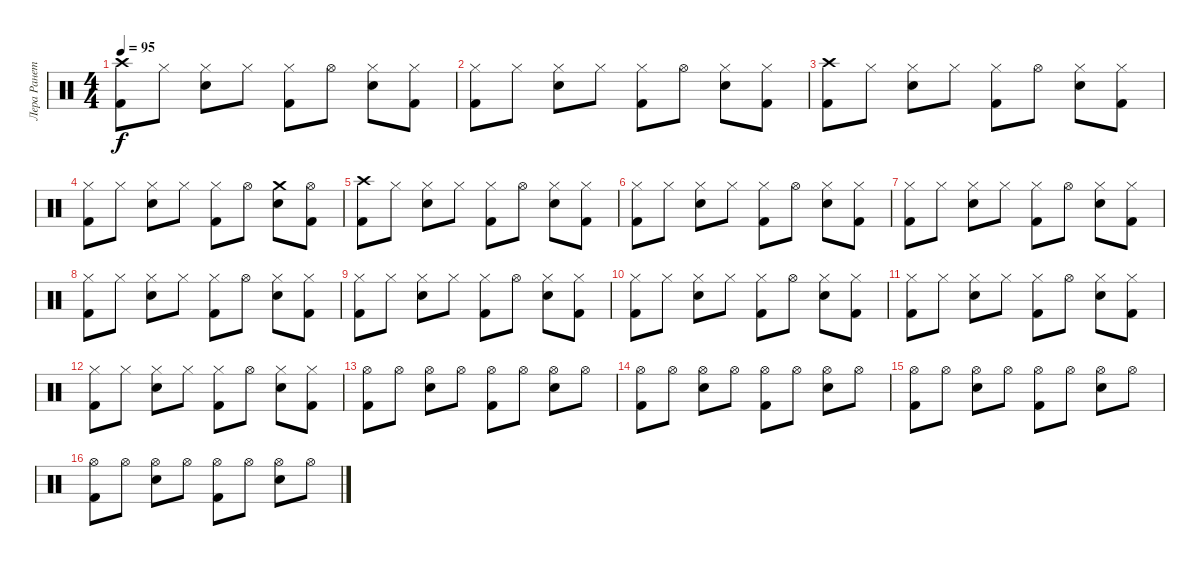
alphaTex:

\track ("Лера Ранетка" "Лера Ранет") {instrument percussion}
\staff {score}
\articulation defaults
\ts (4 4)
\tempo 95
\clef neutral
\ks c
("Crash high (hit)" "Kick (hit) 2").8{dy f} "Hi-Hat (closed)".8 ("Hi-Hat (closed)" "Electric Snare (hit)").8 "Hi-Hat (closed)".8 ("Hi-Hat (closed)" "Kick (hit) 2").8 "Hi-Hat (open)".8 ("Hi-Hat (closed)" "Electric Snare (hit)").8 ("Hi-Hat (closed)" "Kick (hit) 2").8 |
("Hi-Hat (closed)" "Kick (hit) 2").8 "Hi-Hat (closed)".8 ("Hi-Hat (closed)" "Electric Snare (hit)").8 "Hi-Hat (closed)".8 ("Hi-Hat (closed)" "Kick (hit) 2").8 "Hi-Hat (open)".8 ("Hi-Hat (closed)" "Electric Snare (hit)").8 ("Hi-Hat (closed)" "Kick (hit) 2").8 |
("Crash high (hit)" "Kick (hit) 2").8 "Hi-Hat (closed)".8 ("Hi-Hat (closed)" "Electric Snare (hit)").8 "Hi-Hat (closed)".8 ("Hi-Hat (closed)" "Kick (hit) 2").8 "Hi-Hat (open)".8 ("Hi-Hat (closed)" "Electric Snare (hit)").8 ("Hi-Hat (closed)" "Kick (hit) 2").8 |
("Hi-Hat (closed)" "Kick (hit) 2").8 "Hi-Hat (closed)".8 ("Hi-Hat (closed)" "Electric Snare (hit)").8 "Hi-Hat (closed)".8 ("Hi-Hat (closed)" "Kick (hit) 2").8 "Hi-Hat (open)".8 ("Crash medium (hit)" "Electric Snare (hit)").8 ("Hi-Hat (open)" "Kick (hit) 2").8 |
("Crash high (hit)" "Kick (hit) 2").8 "Hi-Hat (closed)".8 ("Hi-Hat (closed)" "Electric Snare (hit)").8 "Hi-Hat (closed)".8 ("Hi-Hat (closed)" "Kick (hit) 2").8 "Hi-Hat (open)".8 ("Hi-Hat (closed)" "Electric Snare (hit)").8 ("Hi-Hat (closed)" "Kick (hit) 2").8 |
("Hi-Hat (closed)" "Kick (hit) 2").8 "Hi-Hat (closed)".8 ("Hi-Hat (closed)" "Electric Snare (hit)").8 "Hi-Hat (closed)".8 ("Hi-Hat (closed)" "Kick (hit) 2").8 "Hi-Hat (open)".8 ("Hi-Hat (closed)" "Electric Snare (hit)").8 ("Hi-Hat (closed)" "Kick (hit) 2").8 |
("Hi-Hat (closed)" "Kick (hit) 2").8 "Hi-Hat (closed)".8 ("Hi-Hat (closed)" "Electric Snare (hit)").8 "Hi-Hat (closed)".8 ("Hi-Hat (closed)" "Kick (hit) 2").8 "Hi-Hat (open)".8 ("Hi-Hat (closed)" "Electric Snare (hit)").8 ("Hi-Hat (closed)" "Kick (hit) 2").8 |
("Hi-Hat (closed)" "Kick (hit) 2").8 "Hi-Hat (closed)".8 ("Hi-Hat (closed)" "Electric Snare (hit)").8 "Hi-Hat (closed)".8 ("Hi-Hat (closed)" "Kick (hit) 2").8 "Hi-Hat (open)".8 ("Hi-Hat (closed)" "Electric Snare (hit)").8 ("Hi-Hat (closed)" "Kick (hit) 2").8 |
("Hi-Hat (closed)" "Kick (hit) 2").8 "Hi-Hat (closed)".8 ("Hi-Hat (closed)" "Electric Snare (hit)").8 "Hi-Hat (closed)".8 ("Hi-Hat (closed)" "Kick (hit) 2").8 "Hi-Hat (open)".8 ("Hi-Hat (closed)" "Electric Snare (hit)").8 ("Hi-Hat (closed)" "Kick (hit) 2").8 |
("Hi-Hat (closed)" "Kick (hit) 2").8 "Hi-Hat (closed)".8 ("Hi-Hat (closed)" "Electric Snare (hit)").8 "Hi-Hat (closed)".8 ("Hi-Hat (closed)" "Kick (hit) 2").8 "Hi-Hat (open)".8 ("Hi-Hat (closed)" "Electric Snare (hit)").8 ("Hi-Hat (closed)" "Kick (hit) 2").8 |
("Hi-Hat (closed)" "Kick (hit) 2").8 "Hi-Hat (closed)".8 ("Hi-Hat (closed)" "Electric Snare (hit)").8 "Hi-Hat (closed)".8 ("Hi-Hat (closed)" "Kick (hit) 2").8 "Hi-Hat (open)".8 ("Hi-Hat (closed)" "Electric Snare (hit)").8 ("Hi-Hat (closed)" "Kick (hit) 2").8 |
("Hi-Hat (closed)" "Kick (hit) 2").8 "Hi-Hat (closed)".8 ("Hi-Hat (closed)" "Electric Snare (hit)").8 "Hi-Hat (closed)".8 ("Hi-Hat (closed)" "Kick (hit) 2").8 "Hi-Hat (open)".8 ("Hi-Hat (closed)" "Electric Snare (hit)").8 ("Hi-Hat (closed)" "Kick (hit) 2").8 |
("Hi-Hat (open)" "Kick (hit) 2").8 "Hi-Hat (open)".8 ("Hi-Hat (open)" "Electric Snare (hit)").8 "Hi-Hat (open)".8 ("Hi-Hat (open)" "Kick (hit) 2").8 "Hi-Hat (open)".8 ("Hi-Hat (open)" "Electric Snare (hit)").8 "Hi-Hat (open)".8 |
("Hi-Hat (open)" "Kick (hit) 2").8 "Hi-Hat (open)".8 ("Hi-Hat (open)" "Electric Snare (hit)").8 "Hi-Hat (open)".8 ("Hi-Hat (open)" "Kick (hit) 2").8 "Hi-Hat (open)".8 ("Hi-Hat (open)" "Electric Snare (hit)").8 "Hi-Hat (open)".8 |
("Hi-Hat (open)" "Kick (hit) 2").8 "Hi-Hat (open)".8 ("Hi-Hat (open)" "Electric Snare (hit)").8 "Hi-Hat (open)".8 ("Hi-Hat (open)" "Kick (hit) 2").8 "Hi-Hat (open)".8 ("Hi-Hat (open)" "Electric Snare (hit)").8 "Hi-Hat (open)".8 |
("Hi-Hat (open)" "Kick (hit) 2").8 "Hi-Hat (open)".8 ("Hi-Hat (open)" "Electric Snare (hit)").8 "Hi-Hat (open)".8 ("Hi-Hat (open)" "Kick (hit) 2").8 "Hi-Hat (open)".8 ("Hi-Hat (open)" "Electric Snare (hit)").8 "Hi-Hat (open)".8
